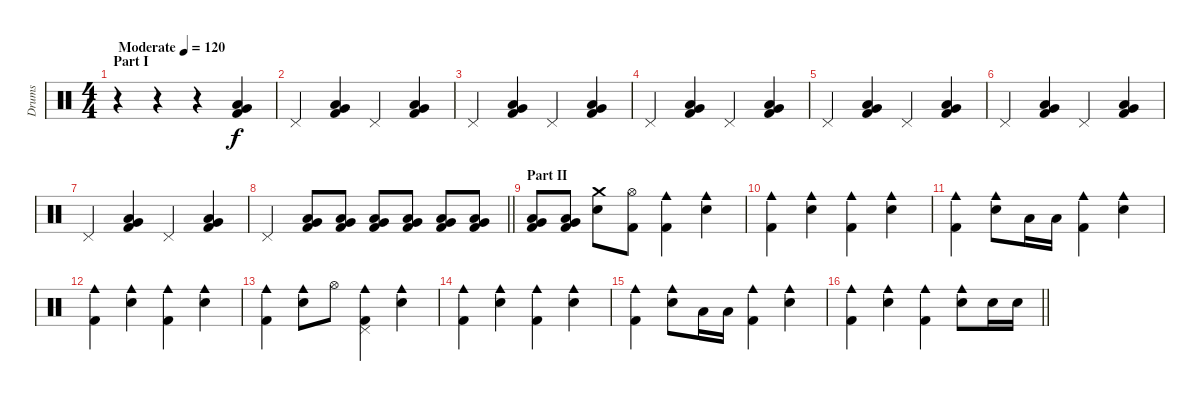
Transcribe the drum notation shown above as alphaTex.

\track ("Drums" "Drums") {instrument percussion}
\staff {score}
\articulation defaults
\ts (4 4)
\section ("" "Part I")
\tempo (120 "Moderate")
\clef neutral
\ks c
r.4{dy f} r.4 r.4 ("Very Low Tom (hit)" "Low Floor Tom (hit)" "Kick (hit) 2").4 |
"Pedal Hi-Hat (hit)".4 ("Very Low Tom (hit)" "Low Floor Tom (hit)" "Kick (hit) 2").4 "Pedal Hi-Hat (hit)".4 ("Very Low Tom (hit)" "Low Floor Tom (hit)" "Kick (hit) 2").4 |
"Pedal Hi-Hat (hit)".4 ("Very Low Tom (hit)" "Low Floor Tom (hit)" "Kick (hit) 2").4 "Pedal Hi-Hat (hit)".4 ("Very Low Tom (hit)" "Low Floor Tom (hit)" "Kick (hit) 2").4 |
"Pedal Hi-Hat (hit)".4 ("Very Low Tom (hit)" "Low Floor Tom (hit)" "Kick (hit) 2").4 "Pedal Hi-Hat (hit)".4 ("Very Low Tom (hit)" "Low Floor Tom (hit)" "Kick (hit) 2").4 |
"Pedal Hi-Hat (hit)".4 ("Very Low Tom (hit)" "Low Floor Tom (hit)" "Kick (hit) 2").4 "Pedal Hi-Hat (hit)".4 ("Very Low Tom (hit)" "Low Floor Tom (hit)" "Kick (hit) 2").4 |
"Pedal Hi-Hat (hit)".4 ("Very Low Tom (hit)" "Low Floor Tom (hit)" "Kick (hit) 2").4 "Pedal Hi-Hat (hit)".4 ("Very Low Tom (hit)" "Low Floor Tom (hit)" "Kick (hit) 2").4 |
"Pedal Hi-Hat (hit)".4 ("Very Low Tom (hit)" "Low Floor Tom (hit)" "Kick (hit) 2").4 "Pedal Hi-Hat (hit)".4 ("Very Low Tom (hit)" "Low Floor Tom (hit)" "Kick (hit) 2").4 |
\barLineRight lightlight "Pedal Hi-Hat (hit)".4
("Very Low Tom (hit)" "Low Floor Tom (hit)" "Kick (hit) 2").8 ("Very Low Tom (hit)" "Low Floor Tom (hit)" "Kick (hit) 2").8 ("Very Low Tom (hit)" "Low Floor Tom (hit)" "Kick (hit) 2").8 ("Very Low Tom (hit)" "Low Floor Tom (hit)" "Kick (hit) 2").8 ("Very Low Tom (hit)" "Low Floor Tom (hit)" "Kick (hit) 2").8 ("Very Low Tom (hit)" "Low Floor Tom (hit)" "Kick (hit) 2").8 |
\section ("" "Part II")
("Very Low Tom (hit)" "Low Floor Tom (hit)" "Kick (hit) 2").8 ("Very Low Tom (hit)" "Low Floor Tom (hit)" "Kick (hit) 2").8 ("Crash medium (hit)" "Electric Snare (hit)").8 ("Hi-Hat (open)" "Kick (hit) 2").8 ("Cowbell medium (hit)" "Kick (hit) 2").4 ("Cowbell medium (hit)" "Electric Snare (hit)").4 |
("Cowbell medium (hit)" "Kick (hit) 2").4 ("Cowbell medium (hit)" "Electric Snare (hit)").4 ("Cowbell medium (hit)" "Kick (hit) 2").4 ("Cowbell medium (hit)" "Electric Snare (hit)").4 |
("Cowbell medium (hit)" "Kick (hit) 2").4 ("Cowbell medium (hit)" "Electric Snare (hit)").8 "Low Floor Tom (hit)".16 "Low Floor Tom (hit)".16 ("Cowbell medium (hit)" "Kick (hit) 2").4 ("Cowbell medium (hit)" "Electric Snare (hit)").4 |
("Cowbell medium (hit)" "Kick (hit) 2").4 ("Cowbell medium (hit)" "Electric Snare (hit)").4 ("Cowbell medium (hit)" "Kick (hit) 2").4 ("Cowbell medium (hit)" "Electric Snare (hit)").4 |
("Cowbell medium (hit)" "Kick (hit) 2").4 ("Cowbell medium (hit)" "Electric Snare (hit)").8 "Hi-Hat (open)".8 ("Cowbell medium (hit)" "Pedal Hi-Hat (hit)" "Kick (hit) 2").4 ("Cowbell medium (hit)" "Electric Snare (hit)").4 |
("Cowbell medium (hit)" "Kick (hit) 2").4 ("Cowbell medium (hit)" "Electric Snare (hit)").4 ("Cowbell medium (hit)" "Kick (hit) 2").4 ("Cowbell medium (hit)" "Electric Snare (hit)").4 |
("Cowbell medium (hit)" "Kick (hit) 2").4 ("Cowbell medium (hit)" "Electric Snare (hit)").8 "Low Floor Tom (hit)".16 "Low Floor Tom (hit)".16 ("Cowbell medium (hit)" "Kick (hit) 2").4 ("Cowbell medium (hit)" "Electric Snare (hit)").4 |
\barLineRight lightlight
("Cowbell medium (hit)" "Kick (hit) 2").4 ("Cowbell medium (hit)" "Electric Snare (hit)").4 ("Cowbell medium (hit)" "Kick (hit) 2").4 ("Cowbell medium (hit)" "Electric Snare (hit)").8 "Electric Snare (hit)".16 "Electric Snare (hit)".16
